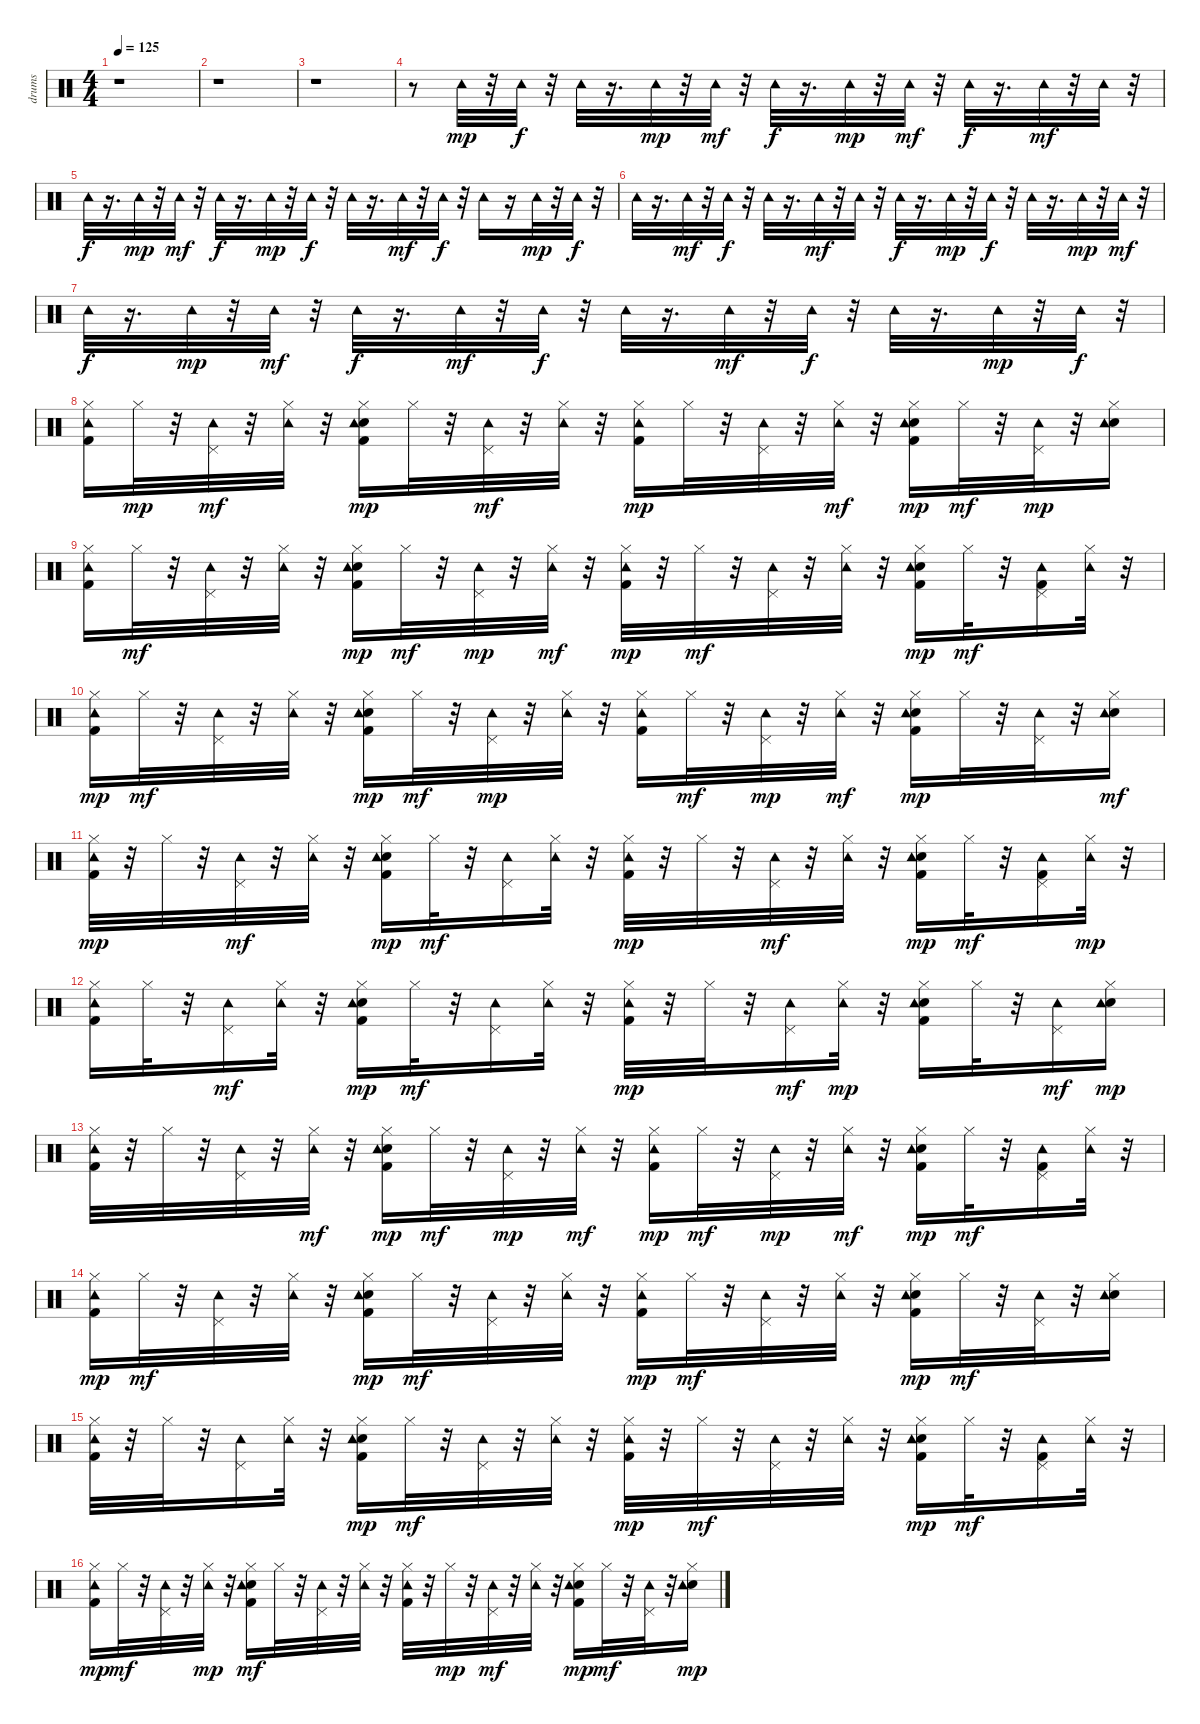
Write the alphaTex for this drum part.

\track ("drums   " "drums   ") {instrument percussion}
\staff {score}
\articulation defaults
\ts (4 4)
\tempo 125
\clef neutral
\ks c
r.1{dy fff} |
r.1 |
r.1 |
r.8 "Tambourine (hit)".32{dy mp} r.32 "Tambourine (hit)".32{dy f} r.32 "Tambourine (hit)".32 r.16{d} "Tambourine (hit)".32{dy mp} r.32 "Tambourine (hit)".32{dy mf} r.32 "Tambourine (hit)".32{dy f} r.16{d} "Tambourine (hit)".32{dy mp} r.32 "Tambourine (hit)".32{dy mf} r.32 "Tambourine (hit)".32{dy f} r.16{d} "Tambourine (hit)".32{dy mf} r.32 "Tambourine (hit)".32 r.32 |
"Tambourine (hit)".32{dy f} r.16{d} "Tambourine (hit)".32{dy mp} r.32 "Tambourine (hit)".32{dy mf} r.32 "Tambourine (hit)".32{dy f} r.16{d} "Tambourine (hit)".32{dy mp} r.32 "Tambourine (hit)".32{dy f} r.32 "Tambourine (hit)".32 r.16{d} "Tambourine (hit)".32{dy mf} r.32 "Tambourine (hit)".32{dy f} r.32 "Tambourine (hit)".16 r.16 "Tambourine (hit)".32{dy mp} r.32 "Tambourine (hit)".32{dy f} r.32 |
"Tambourine (hit)".32 r.16{d} "Tambourine (hit)".32{dy mf} r.32 "Tambourine (hit)".32{dy f} r.32 "Tambourine (hit)".32 r.16{d} "Tambourine (hit)".32{dy mf} r.32 "Tambourine (hit)".32 r.32 "Tambourine (hit)".32{dy f} r.16{d} "Tambourine (hit)".32{dy mp} r.32 "Tambourine (hit)".32{dy f} r.32 "Tambourine (hit)".32 r.16{d} "Tambourine (hit)".32{dy mp} r.32 "Tambourine (hit)".32{dy mf} r.32 |
"Tambourine (hit)".32{dy f} r.16{d} "Tambourine (hit)".32{dy mp} r.32 "Tambourine (hit)".32{dy mf} r.32 "Tambourine (hit)".32{dy f} r.16{d} "Tambourine (hit)".32{dy mf} r.32 "Tambourine (hit)".32{dy f} r.32 "Tambourine (hit)".32 r.16{d} "Tambourine (hit)".32{dy mf} r.32 "Tambourine (hit)".32{dy f} r.32 "Tambourine (hit)".32 r.16{d} "Tambourine (hit)".32{dy mp} r.32 "Tambourine (hit)".32{dy f} r.32 |
("Kick (hit) 2" "Hi-Hat (closed)" "Tambourine (hit)").16 "Hi-Hat (closed)".32{dy mp} r.32 ("Pedal Hi-Hat (hit)" "Tambourine (hit)").32{dy mf} r.32 ("Hi-Hat (closed)" "Tambourine (hit)").32 r.32 ("Kick (hit) 2" "Snare (hit) 2" "Hi-Hat (closed)" "Tambourine (hit)").16{dy mp} "Hi-Hat (closed)".32 r.32 ("Pedal Hi-Hat (hit)" "Tambourine (hit)").32{dy mf} r.32 ("Hi-Hat (closed)" "Tambourine (hit)").32 r.32 ("Kick (hit) 2" "Hi-Hat (closed)" "Tambourine (hit)").16{dy mp} "Hi-Hat (closed)".32 r.32 ("Pedal Hi-Hat (hit)" "Tambourine (hit)").32 r.32 ("Hi-Hat (closed)" "Tambourine (hit)").32{dy mf} r.32 ("Kick (hit) 2" "Snare (hit) 2" "Hi-Hat (closed)" "Tambourine (hit)").16{dy mp} "Hi-Hat (closed)".32{dy mf} r.32 ("Pedal Hi-Hat (hit)" "Tambourine (hit)").32{dy mp} r.32 ("Snare (hit) 2" "Hi-Hat (closed)" "Tambourine (hit)").16 |
("Kick (hit) 2" "Hi-Hat (closed)" "Tambourine (hit)").16 "Hi-Hat (closed)".32{dy mf} r.32 ("Pedal Hi-Hat (hit)" "Tambourine (hit)").32 r.32 ("Hi-Hat (closed)" "Tambourine (hit)").32 r.32 ("Kick (hit) 2" "Snare (hit) 2" "Hi-Hat (closed)" "Tambourine (hit)").16{dy mp} "Hi-Hat (closed)".32{dy mf} r.32 ("Pedal Hi-Hat (hit)" "Tambourine (hit)").32{dy mp} r.32 ("Hi-Hat (closed)" "Tambourine (hit)").32{dy mf} r.32 ("Kick (hit) 2" "Hi-Hat (closed)" "Tambourine (hit)").32{dy mp} r.32 "Hi-Hat (closed)".32{dy mf} r.32 ("Pedal Hi-Hat (hit)" "Tambourine (hit)").32 r.32 ("Hi-Hat (closed)" "Tambourine (hit)").32 r.32 ("Kick (hit) 2" "Snare (hit) 2" "Hi-Hat (closed)" "Tambourine (hit)").16{dy mp} "Hi-Hat (closed)".32{dy mf} r.32 ("Kick (hit) 2" "Pedal Hi-Hat (hit)" "Tambourine (hit)").16 ("Hi-Hat (closed)" "Tambourine (hit)").32 r.32 |
("Kick (hit) 2" "Hi-Hat (closed)" "Tambourine (hit)").16{dy mp} "Hi-Hat (closed)".32{dy mf} r.32 ("Pedal Hi-Hat (hit)" "Tambourine (hit)").32 r.32 ("Hi-Hat (closed)" "Tambourine (hit)").32 r.32 ("Kick (hit) 2" "Snare (hit) 2" "Hi-Hat (closed)" "Tambourine (hit)").16{dy mp} "Hi-Hat (closed)".32{dy mf} r.32 ("Pedal Hi-Hat (hit)" "Tambourine (hit)").32{dy mp} r.32 ("Hi-Hat (closed)" "Tambourine (hit)").32 r.32 ("Kick (hit) 2" "Hi-Hat (closed)" "Tambourine (hit)").16 "Hi-Hat (closed)".32{dy mf} r.32 ("Pedal Hi-Hat (hit)" "Tambourine (hit)").32{dy mp} r.32 ("Hi-Hat (closed)" "Tambourine (hit)").32{dy mf} r.32 ("Kick (hit) 2" "Snare (hit) 2" "Hi-Hat (closed)" "Tambourine (hit)").16{dy mp} "Hi-Hat (closed)".32 r.32 ("Pedal Hi-Hat (hit)" "Tambourine (hit)").32 r.32 ("Snare (hit) 2" "Hi-Hat (closed)" "Tambourine (hit)").16{dy mf} |
("Kick (hit) 2" "Hi-Hat (closed)" "Tambourine (hit)").32{dy mp} r.32 "Hi-Hat (closed)".32 r.32 ("Pedal Hi-Hat (hit)" "Tambourine (hit)").32{dy mf} r.32 ("Hi-Hat (closed)" "Tambourine (hit)").32 r.32 ("Kick (hit) 2" "Snare (hit) 2" "Hi-Hat (closed)" "Tambourine (hit)").16{dy mp} "Hi-Hat (closed)".32{dy mf} r.32 ("Pedal Hi-Hat (hit)" "Tambourine (hit)").16 ("Hi-Hat (closed)" "Tambourine (hit)").32 r.32 ("Kick (hit) 2" "Hi-Hat (closed)" "Tambourine (hit)").32{dy mp} r.32 "Hi-Hat (closed)".32 r.32 ("Pedal Hi-Hat (hit)" "Tambourine (hit)").32{dy mf} r.32 ("Hi-Hat (closed)" "Tambourine (hit)").32 r.32 ("Kick (hit) 2" "Snare (hit) 2" "Hi-Hat (closed)" "Tambourine (hit)").16{dy mp} "Hi-Hat (closed)".32{dy mf} r.32 ("Kick (hit) 2" "Pedal Hi-Hat (hit)" "Tambourine (hit)").16 ("Hi-Hat (closed)" "Tambourine (hit)").32{dy mp} r.32 |
("Kick (hit) 2" "Hi-Hat (closed)" "Tambourine (hit)").16 "Hi-Hat (closed)".32 r.32 ("Pedal Hi-Hat (hit)" "Tambourine (hit)").16{dy mf} ("Hi-Hat (closed)" "Tambourine (hit)").32 r.32 ("Kick (hit) 2" "Snare (hit) 2" "Hi-Hat (closed)" "Tambourine (hit)").16{dy mp} "Hi-Hat (closed)".32{dy mf} r.32 ("Pedal Hi-Hat (hit)" "Tambourine (hit)").16 ("Hi-Hat (closed)" "Tambourine (hit)").32 r.32 ("Kick (hit) 2" "Hi-Hat (closed)" "Tambourine (hit)").32{dy mp} r.32 "Hi-Hat (closed)".32 r.32 ("Pedal Hi-Hat (hit)" "Tambourine (hit)").16{dy mf} ("Hi-Hat (closed)" "Tambourine (hit)").32{dy mp} r.32 ("Kick (hit) 2" "Snare (hit) 2" "Hi-Hat (closed)" "Tambourine (hit)").16 "Hi-Hat (closed)".32 r.32 ("Pedal Hi-Hat (hit)" "Tambourine (hit)").16{dy mf} ("Snare (hit) 2" "Hi-Hat (closed)" "Tambourine (hit)").16{dy mp} |
("Kick (hit) 2" "Hi-Hat (closed)" "Tambourine (hit)").32 r.32 "Hi-Hat (closed)".32 r.32 ("Pedal Hi-Hat (hit)" "Tambourine (hit)").32 r.32 ("Hi-Hat (closed)" "Tambourine (hit)").32{dy mf} r.32 ("Kick (hit) 2" "Snare (hit) 2" "Hi-Hat (closed)" "Tambourine (hit)").16{dy mp} "Hi-Hat (closed)".32{dy mf} r.32 ("Pedal Hi-Hat (hit)" "Tambourine (hit)").32{dy mp} r.32 ("Hi-Hat (closed)" "Tambourine (hit)").32{dy mf} r.32 ("Kick (hit) 2" "Hi-Hat (closed)" "Tambourine (hit)").16{dy mp} "Hi-Hat (closed)".32{dy mf} r.32 ("Pedal Hi-Hat (hit)" "Tambourine (hit)").32{dy mp} r.32 ("Hi-Hat (closed)" "Tambourine (hit)").32{dy mf} r.32 ("Kick (hit) 2" "Snare (hit) 2" "Hi-Hat (closed)" "Tambourine (hit)").16{dy mp} "Hi-Hat (closed)".32{dy mf} r.32 ("Kick (hit) 2" "Pedal Hi-Hat (hit)" "Tambourine (hit)").16 ("Hi-Hat (closed)" "Tambourine (hit)").32 r.32 |
("Kick (hit) 2" "Hi-Hat (closed)" "Tambourine (hit)").16{dy mp} "Hi-Hat (closed)".32{dy mf} r.32 ("Pedal Hi-Hat (hit)" "Tambourine (hit)").32 r.32 ("Hi-Hat (closed)" "Tambourine (hit)").32 r.32 ("Kick (hit) 2" "Snare (hit) 2" "Hi-Hat (closed)" "Tambourine (hit)").16{dy mp} "Hi-Hat (closed)".32{dy mf} r.32 ("Pedal Hi-Hat (hit)" "Tambourine (hit)").32 r.32 ("Hi-Hat (closed)" "Tambourine (hit)").32 r.32 ("Kick (hit) 2" "Hi-Hat (closed)" "Tambourine (hit)").16{dy mp} "Hi-Hat (closed)".32{dy mf} r.32 ("Pedal Hi-Hat (hit)" "Tambourine (hit)").32 r.32 ("Hi-Hat (closed)" "Tambourine (hit)").32 r.32 ("Kick (hit) 2" "Snare (hit) 2" "Hi-Hat (closed)" "Tambourine (hit)").16{dy mp} "Hi-Hat (closed)".32{dy mf} r.32 ("Pedal Hi-Hat (hit)" "Tambourine (hit)").32 r.32 ("Snare (hit) 2" "Hi-Hat (closed)" "Tambourine (hit)").16 |
("Kick (hit) 2" "Hi-Hat (closed)" "Tambourine (hit)").32 r.32 "Hi-Hat (closed)".32 r.32 ("Pedal Hi-Hat (hit)" "Tambourine (hit)").16 ("Hi-Hat (closed)" "Tambourine (hit)").32 r.32 ("Kick (hit) 2" "Snare (hit) 2" "Hi-Hat (closed)" "Tambourine (hit)").16{dy mp} "Hi-Hat (closed)".32{dy mf} r.32 ("Pedal Hi-Hat (hit)" "Tambourine (hit)").32 r.32 ("Hi-Hat (closed)" "Tambourine (hit)").32 r.32 ("Kick (hit) 2" "Hi-Hat (closed)" "Tambourine (hit)").32{dy mp} r.32 "Hi-Hat (closed)".32{dy mf} r.32 ("Pedal Hi-Hat (hit)" "Tambourine (hit)").32 r.32 ("Hi-Hat (closed)" "Tambourine (hit)").32 r.32 ("Kick (hit) 2" "Snare (hit) 2" "Hi-Hat (closed)" "Tambourine (hit)").16{dy mp} "Hi-Hat (closed)".32{dy mf} r.32 ("Kick (hit) 2" "Pedal Hi-Hat (hit)" "Tambourine (hit)").16 ("Hi-Hat (closed)" "Tambourine (hit)").32 r.32 |
("Kick (hit) 2" "Hi-Hat (closed)" "Tambourine (hit)").16{dy mp} "Hi-Hat (closed)".32{dy mf} r.32 ("Pedal Hi-Hat (hit)" "Tambourine (hit)").32 r.32 ("Hi-Hat (closed)" "Tambourine (hit)").32{dy mp} r.32 ("Kick (hit) 2" "Snare (hit) 2" "Hi-Hat (closed)" "Tambourine (hit)").16{dy mf} "Hi-Hat (closed)".32 r.32 ("Pedal Hi-Hat (hit)" "Tambourine (hit)").32 r.32 ("Hi-Hat (closed)" "Tambourine (hit)").32 r.32 ("Kick (hit) 2" "Hi-Hat (closed)" "Tambourine (hit)").32 r.32 "Hi-Hat (closed)".32{dy mp} r.32 ("Pedal Hi-Hat (hit)" "Tambourine (hit)").32{dy mf} r.32 ("Hi-Hat (closed)" "Tambourine (hit)").32 r.32 ("Kick (hit) 2" "Snare (hit) 2" "Hi-Hat (closed)" "Tambourine (hit)").16{dy mp} "Hi-Hat (closed)".32{dy mf} r.32 ("Pedal Hi-Hat (hit)" "Tambourine (hit)").32 r.32 ("Snare (hit) 2" "Hi-Hat (closed)" "Tambourine (hit)").16{dy mp}
